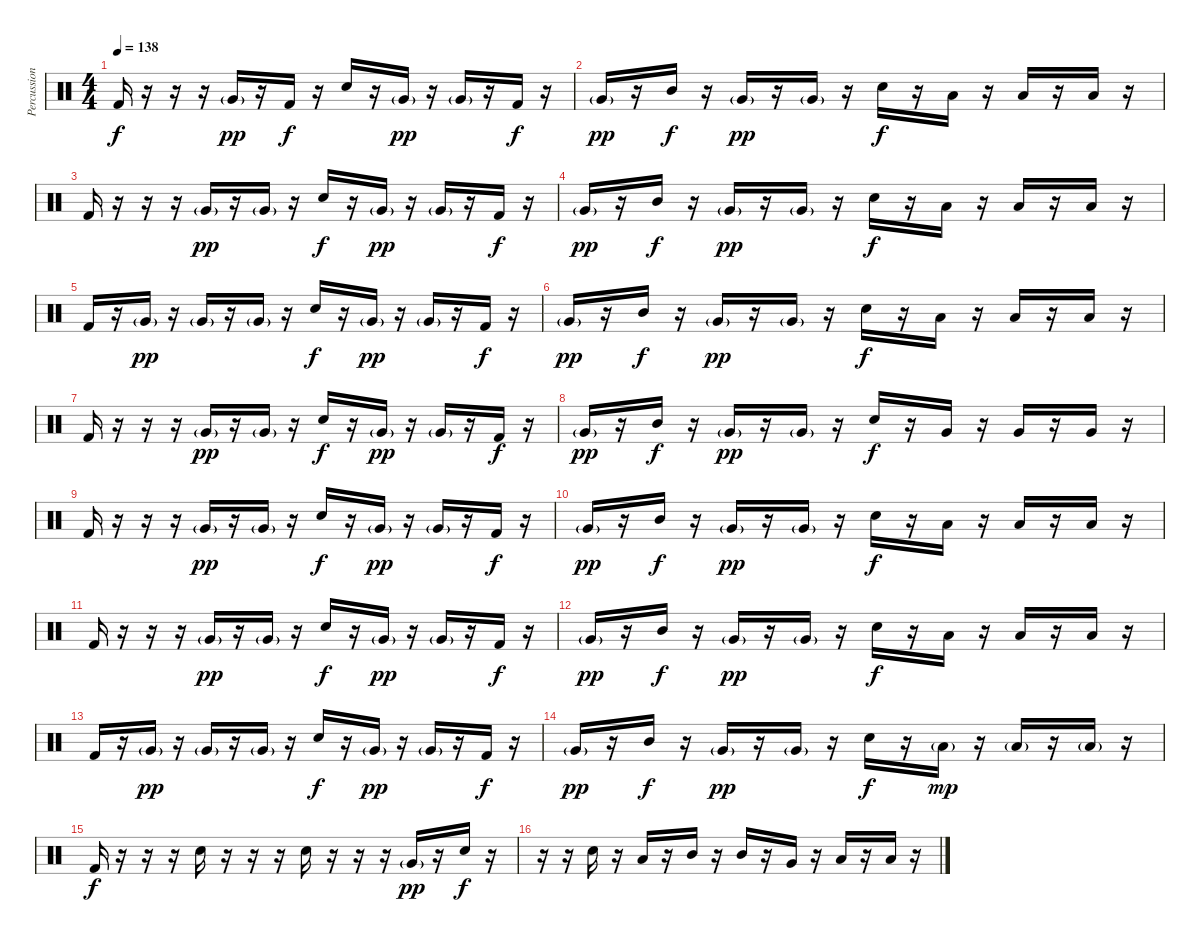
\track ("Percussion" "Percussion") {instrument percussion}
\staff {score}
\articulation defaults
\ts (4 4)
\tempo 138
\clef neutral
\ks c "Kick (hit) 2".16{dy f}
r.16 r.16 r.16 "Very Low Tom (hit)"{g}.16{dy pp} r.16 "Kick (hit) 2".16{dy f} r.16 "Electric Snare (hit)".16 r.16 "Very Low Tom (hit)"{g}.16{dy pp} r.16 "Very Low Tom (hit)"{g}.16 r.16 "Kick (hit) 2".16{dy f} r.16 |
"Very Low Tom (hit)"{g}.16{dy pp} r.16 "Mid Tom (hit)".16{dy f} r.16 "Very Low Tom (hit)"{g}.16{dy pp} r.16 "Very Low Tom (hit)"{g}.16 r.16 "Electric Snare (hit)".16{dy f} r.16 "Low Tom (hit)".16 r.16 "Low Tom (hit)".16 r.16 "Low Tom (hit)".16 r.16 |
"Kick (hit) 2".16 r.16 r.16 r.16 "Very Low Tom (hit)"{g}.16{dy pp} r.16 "Very Low Tom (hit)"{g}.16 r.16 "Electric Snare (hit)".16{dy f} r.16 "Very Low Tom (hit)"{g}.16{dy pp} r.16 "Very Low Tom (hit)"{g}.16 r.16 "Kick (hit) 2".16{dy f} r.16 |
"Very Low Tom (hit)"{g}.16{dy pp} r.16 "Mid Tom (hit)".16{dy f} r.16 "Very Low Tom (hit)"{g}.16{dy pp} r.16 "Very Low Tom (hit)"{g}.16 r.16 "Electric Snare (hit)".16{dy f} r.16 "Low Tom (hit)".16 r.16 "Low Tom (hit)".16 r.16 "Low Tom (hit)".16 r.16 |
"Kick (hit) 2".16 r.16 "Very Low Tom (hit)"{g}.16{dy pp} r.16 "Very Low Tom (hit)"{g}.16 r.16 "Very Low Tom (hit)"{g}.16 r.16 "Electric Snare (hit)".16{dy f} r.16 "Very Low Tom (hit)"{g}.16{dy pp} r.16 "Very Low Tom (hit)"{g}.16 r.16 "Kick (hit) 2".16{dy f} r.16 |
"Very Low Tom (hit)"{g}.16{dy pp} r.16 "Mid Tom (hit)".16{dy f} r.16 "Very Low Tom (hit)"{g}.16{dy pp} r.16 "Very Low Tom (hit)"{g}.16 r.16 "Electric Snare (hit)".16{dy f} r.16 "Low Tom (hit)".16 r.16 "Low Tom (hit)".16 r.16 "Low Tom (hit)".16 r.16 |
"Kick (hit) 2".16 r.16 r.16 r.16 "Very Low Tom (hit)"{g}.16{dy pp} r.16 "Very Low Tom (hit)"{g}.16 r.16 "Electric Snare (hit)".16{dy f} r.16 "Very Low Tom (hit)"{g}.16{dy pp} r.16 "Very Low Tom (hit)"{g}.16 r.16 "Kick (hit) 2".16{dy f} r.16 |
"Very Low Tom (hit)"{g}.16{dy pp} r.16 "Mid Tom (hit)".16{dy f} r.16 "Very Low Tom (hit)"{g}.16{dy pp} r.16 "Very Low Tom (hit)"{g}.16 r.16 "Electric Snare (hit)".16{dy f} r.16 "Very Low Tom (hit)".16 r.16 "Very Low Tom (hit)".16 r.16 "Very Low Tom (hit)".16 r.16 |
"Kick (hit) 2".16 r.16 r.16 r.16 "Very Low Tom (hit)"{g}.16{dy pp} r.16 "Very Low Tom (hit)"{g}.16 r.16 "Electric Snare (hit)".16{dy f} r.16 "Very Low Tom (hit)"{g}.16{dy pp} r.16 "Very Low Tom (hit)"{g}.16 r.16 "Kick (hit) 2".16{dy f} r.16 |
"Very Low Tom (hit)"{g}.16{dy pp} r.16 "Mid Tom (hit)".16{dy f} r.16 "Very Low Tom (hit)"{g}.16{dy pp} r.16 "Very Low Tom (hit)"{g}.16 r.16 "Electric Snare (hit)".16{dy f} r.16 "Low Tom (hit)".16 r.16 "Low Tom (hit)".16 r.16 "Low Tom (hit)".16 r.16 |
"Kick (hit) 2".16 r.16 r.16 r.16 "Very Low Tom (hit)"{g}.16{dy pp} r.16 "Very Low Tom (hit)"{g}.16 r.16 "Electric Snare (hit)".16{dy f} r.16 "Very Low Tom (hit)"{g}.16{dy pp} r.16 "Very Low Tom (hit)"{g}.16 r.16 "Kick (hit) 2".16{dy f} r.16 |
"Very Low Tom (hit)"{g}.16{dy pp} r.16 "Mid Tom (hit)".16{dy f} r.16 "Very Low Tom (hit)"{g}.16{dy pp} r.16 "Very Low Tom (hit)"{g}.16 r.16 "Electric Snare (hit)".16{dy f} r.16 "Low Tom (hit)".16 r.16 "Low Tom (hit)".16 r.16 "Low Tom (hit)".16 r.16 |
"Kick (hit) 2".16 r.16 "Very Low Tom (hit)"{g}.16{dy pp} r.16 "Very Low Tom (hit)"{g}.16 r.16 "Very Low Tom (hit)"{g}.16 r.16 "Electric Snare (hit)".16{dy f} r.16 "Very Low Tom (hit)"{g}.16{dy pp} r.16 "Very Low Tom (hit)"{g}.16 r.16 "Kick (hit) 2".16{dy f} r.16 |
"Very Low Tom (hit)"{g}.16{dy pp} r.16 "Mid Tom (hit)".16{dy f} r.16 "Very Low Tom (hit)"{g}.16{dy pp} r.16 "Very Low Tom (hit)"{g}.16 r.16 "Electric Snare (hit)".16{dy f} r.16 "Low Tom (hit)"{g}.16{dy mp} r.16 "Low Tom (hit)"{g}.16 r.16 "Low Tom (hit)"{g}.16 r.16 |
"Kick (hit) 2".16{dy f} r.16 r.16 r.16 "Electric Snare (hit)".16 r.16 r.16 r.16 "Electric Snare (hit)".16 r.16 r.16 r.16 "Very Low Tom (hit)"{g}.16{dy pp} r.16 "Electric Snare (hit)".16{dy f} r.16 |
r.16 r.16 "Electric Snare (hit)".16 r.16 "Low Tom (hit)".16 r.16 "Mid Tom (hit)".16 r.16 "Mid Tom (hit)".16 r.16 "Very Low Tom (hit)".16 r.16 "Low Tom (hit)".16 r.16 "Low Tom (hit)".16 r.16
